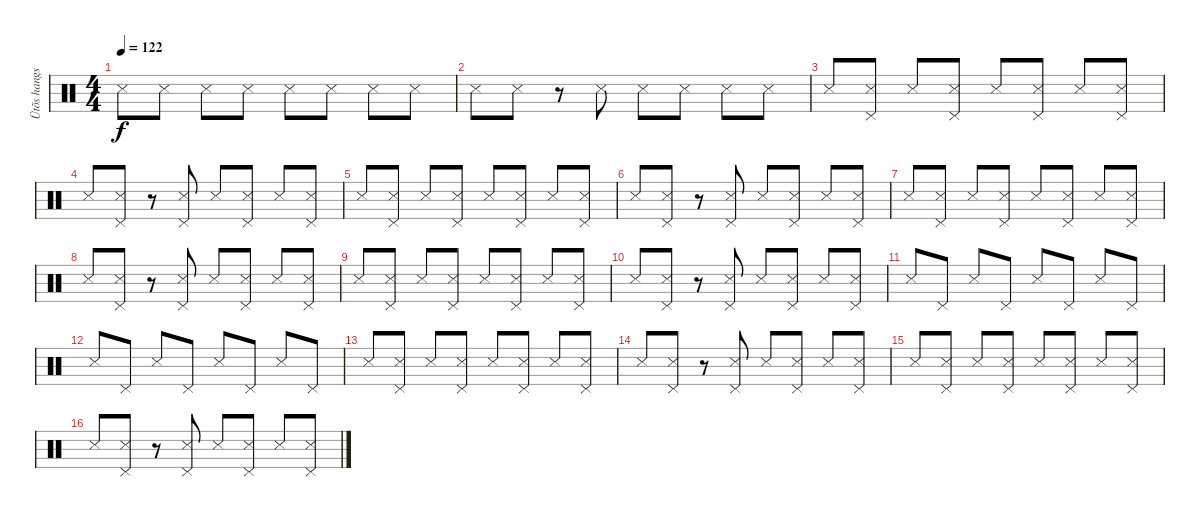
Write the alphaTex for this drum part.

\track ("Ütõs hangszer" "Ütõs hangs") {instrument percussion}
\staff {score}
\articulation defaults
\ts (4 4)
\tempo 122
\clef neutral
\ks c "Snare (side stick) 3".8{dy f} "Snare (side stick) 3".8 "Snare (side stick) 3".8 "Snare (side stick) 3".8 "Snare (side stick) 3".8 "Snare (side stick) 3".8 "Snare (side stick) 3".8 "Snare (side stick) 3".8
|
"Snare (side stick) 3".8 "Snare (side stick) 3".8 r.8 "Snare (side stick) 3".8 "Snare (side stick) 3".8 "Snare (side stick) 3".8 "Snare (side stick) 3".8 "Snare (side stick) 3".8 |
"Snare (side stick) 3".8 ("Snare (side stick) 3" "Pedal Hi-Hat (hit)").8 "Snare (side stick) 3".8 ("Snare (side stick) 3" "Pedal Hi-Hat (hit)").8 "Snare (side stick) 3".8 ("Snare (side stick) 3" "Pedal Hi-Hat (hit)").8 "Snare (side stick) 3".8 ("Snare (side stick) 3" "Pedal Hi-Hat (hit)").8 |
"Snare (side stick) 3".8 ("Snare (side stick) 3" "Pedal Hi-Hat (hit)").8 r.8 ("Snare (side stick) 3" "Pedal Hi-Hat (hit)").8 "Snare (side stick) 3".8 ("Snare (side stick) 3" "Pedal Hi-Hat (hit)").8 "Snare (side stick) 3".8 ("Snare (side stick) 3" "Pedal Hi-Hat (hit)").8 |
"Snare (side stick) 3".8 ("Snare (side stick) 3" "Pedal Hi-Hat (hit)").8 "Snare (side stick) 3".8 ("Snare (side stick) 3" "Pedal Hi-Hat (hit)").8 "Snare (side stick) 3".8 ("Snare (side stick) 3" "Pedal Hi-Hat (hit)").8 "Snare (side stick) 3".8 ("Snare (side stick) 3" "Pedal Hi-Hat (hit)").8 |
"Snare (side stick) 3".8 ("Snare (side stick) 3" "Pedal Hi-Hat (hit)").8 r.8 ("Snare (side stick) 3" "Pedal Hi-Hat (hit)").8 "Snare (side stick) 3".8 ("Snare (side stick) 3" "Pedal Hi-Hat (hit)").8 "Snare (side stick) 3".8 ("Snare (side stick) 3" "Pedal Hi-Hat (hit)").8 |
"Snare (side stick) 3".8 ("Snare (side stick) 3" "Pedal Hi-Hat (hit)").8 "Snare (side stick) 3".8 ("Snare (side stick) 3" "Pedal Hi-Hat (hit)").8 "Snare (side stick) 3".8 ("Snare (side stick) 3" "Pedal Hi-Hat (hit)").8 "Snare (side stick) 3".8 ("Snare (side stick) 3" "Pedal Hi-Hat (hit)").8 |
"Snare (side stick) 3".8 ("Snare (side stick) 3" "Pedal Hi-Hat (hit)").8 r.8 ("Snare (side stick) 3" "Pedal Hi-Hat (hit)").8 "Snare (side stick) 3".8 ("Snare (side stick) 3" "Pedal Hi-Hat (hit)").8 "Snare (side stick) 3".8 ("Snare (side stick) 3" "Pedal Hi-Hat (hit)").8 |
"Snare (side stick) 3".8 ("Snare (side stick) 3" "Pedal Hi-Hat (hit)").8 "Snare (side stick) 3".8 ("Snare (side stick) 3" "Pedal Hi-Hat (hit)").8 "Snare (side stick) 3".8 ("Snare (side stick) 3" "Pedal Hi-Hat (hit)").8 "Snare (side stick) 3".8 ("Snare (side stick) 3" "Pedal Hi-Hat (hit)").8 |
"Snare (side stick) 3".8 ("Snare (side stick) 3" "Pedal Hi-Hat (hit)").8 r.8 ("Snare (side stick) 3" "Pedal Hi-Hat (hit)").8 "Snare (side stick) 3".8 ("Snare (side stick) 3" "Pedal Hi-Hat (hit)").8 "Snare (side stick) 3".8 ("Snare (side stick) 3" "Pedal Hi-Hat (hit)").8 |
"Snare (side stick) 3".8 "Pedal Hi-Hat (hit)".8 "Snare (side stick) 3".8 "Pedal Hi-Hat (hit)".8 "Snare (side stick) 3".8 "Pedal Hi-Hat (hit)".8 "Snare (side stick) 3".8 "Pedal Hi-Hat (hit)".8 |
"Snare (side stick) 3".8 "Pedal Hi-Hat (hit)".8 "Snare (side stick) 3".8 "Pedal Hi-Hat (hit)".8 "Snare (side stick) 3".8 "Pedal Hi-Hat (hit)".8 "Snare (side stick) 3".8 "Pedal Hi-Hat (hit)".8 |
"Snare (side stick) 3".8 ("Snare (side stick) 3" "Pedal Hi-Hat (hit)").8 "Snare (side stick) 3".8 ("Snare (side stick) 3" "Pedal Hi-Hat (hit)").8 "Snare (side stick) 3".8 ("Snare (side stick) 3" "Pedal Hi-Hat (hit)").8 "Snare (side stick) 3".8 ("Snare (side stick) 3" "Pedal Hi-Hat (hit)").8 |
"Snare (side stick) 3".8 ("Snare (side stick) 3" "Pedal Hi-Hat (hit)").8 r.8 ("Snare (side stick) 3" "Pedal Hi-Hat (hit)").8 "Snare (side stick) 3".8 ("Snare (side stick) 3" "Pedal Hi-Hat (hit)").8 "Snare (side stick) 3".8 ("Snare (side stick) 3" "Pedal Hi-Hat (hit)").8 |
"Snare (side stick) 3".8 ("Snare (side stick) 3" "Pedal Hi-Hat (hit)").8 "Snare (side stick) 3".8 ("Snare (side stick) 3" "Pedal Hi-Hat (hit)").8 "Snare (side stick) 3".8 ("Snare (side stick) 3" "Pedal Hi-Hat (hit)").8 "Snare (side stick) 3".8 ("Snare (side stick) 3" "Pedal Hi-Hat (hit)").8 |
"Snare (side stick) 3".8 ("Snare (side stick) 3" "Pedal Hi-Hat (hit)").8 r.8 ("Snare (side stick) 3" "Pedal Hi-Hat (hit)").8 "Snare (side stick) 3".8 ("Snare (side stick) 3" "Pedal Hi-Hat (hit)").8 "Snare (side stick) 3".8 ("Snare (side stick) 3" "Pedal Hi-Hat (hit)").8
